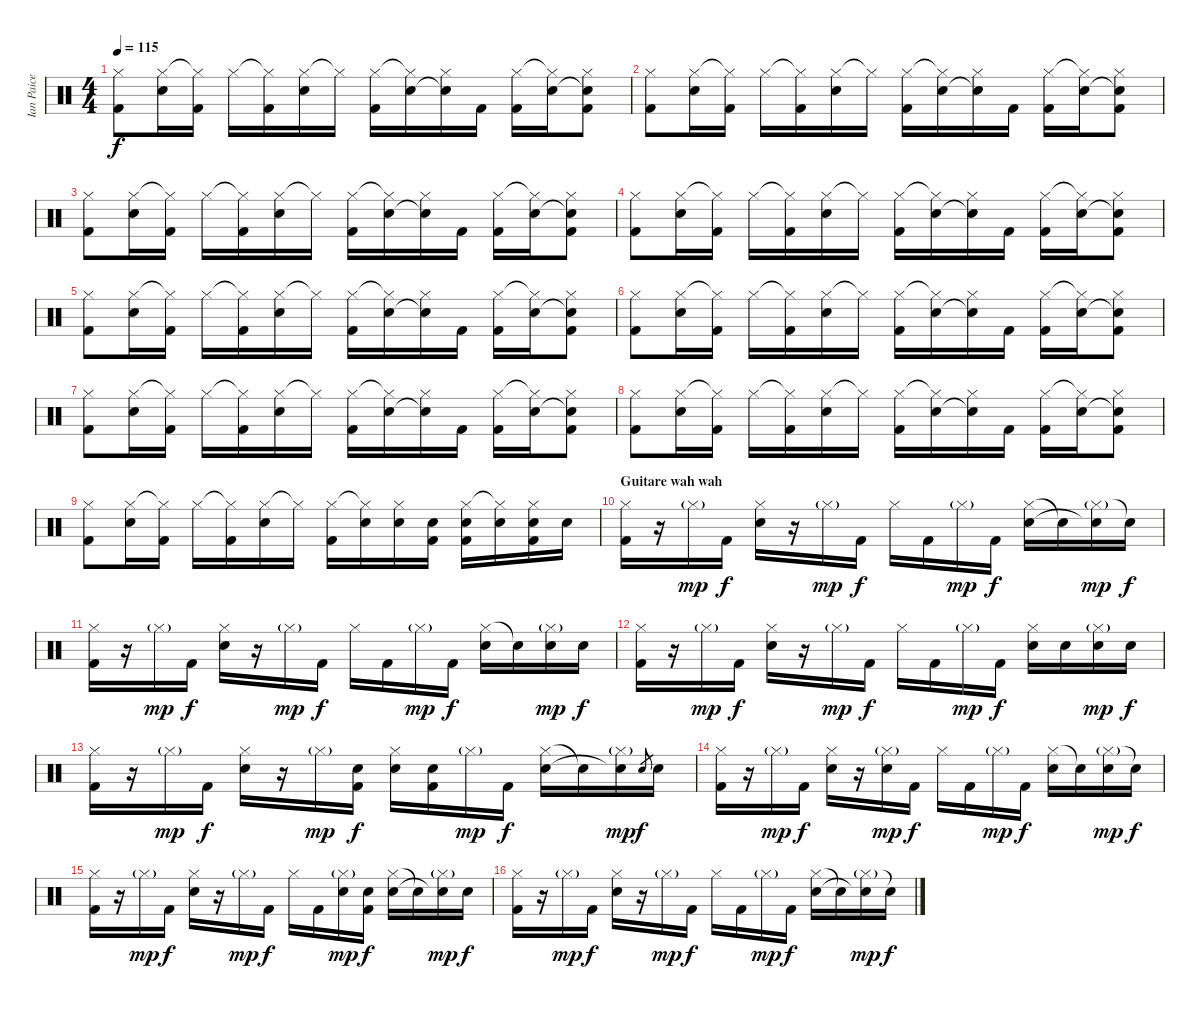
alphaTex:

\track ("Ian Paice" "Ian Paice") {instrument percussion}
\staff {score}
\articulation defaults
\ts (4 4)
\tempo 115
\clef neutral
\ks c
("Hi-Hat (closed)" "Kick (hit) 2").8{dy f} ("Hi-Hat (closed)" "Snare (hit) 2").16 ("Hi-Hat (closed)"{t} "Kick (hit) 2").16 "Hi-Hat (closed)".16 ("Hi-Hat (closed)"{t} "Kick (hit) 2").16 ("Hi-Hat (closed)" "Snare (hit) 2").16 "Hi-Hat (closed)"{t}.16 ("Hi-Hat (closed)" "Kick (hit) 2").16 ("Hi-Hat (closed)"{t} "Snare (hit) 2").16 ("Hi-Hat (closed)" "Snare (hit) 2"{t}).16 "Kick (hit) 2".16 ("Hi-Hat (closed)" "Kick (hit) 2").16 ("Hi-Hat (closed)"{t} "Snare (hit) 2").16 ("Hi-Hat (closed)" "Snare (hit) 2"{t} "Kick (hit) 2").8 |
("Hi-Hat (closed)" "Kick (hit) 2").8 ("Hi-Hat (closed)" "Snare (hit) 2").16 ("Hi-Hat (closed)"{t} "Kick (hit) 2").16 "Hi-Hat (closed)".16 ("Hi-Hat (closed)"{t} "Kick (hit) 2").16 ("Hi-Hat (closed)" "Snare (hit) 2").16 "Hi-Hat (closed)"{t}.16 ("Hi-Hat (closed)" "Kick (hit) 2").16 ("Hi-Hat (closed)"{t} "Snare (hit) 2").16 ("Hi-Hat (closed)" "Snare (hit) 2"{t}).16 "Kick (hit) 2".16 ("Hi-Hat (closed)" "Kick (hit) 2").16 ("Hi-Hat (closed)"{t} "Snare (hit) 2").16 ("Hi-Hat (closed)" "Snare (hit) 2"{t} "Kick (hit) 2").8 |
("Hi-Hat (closed)" "Kick (hit) 2").8 ("Hi-Hat (closed)" "Snare (hit) 2").16 ("Hi-Hat (closed)"{t} "Kick (hit) 2").16 "Hi-Hat (closed)".16 ("Hi-Hat (closed)"{t} "Kick (hit) 2").16 ("Hi-Hat (closed)" "Snare (hit) 2").16 "Hi-Hat (closed)"{t}.16 ("Hi-Hat (closed)" "Kick (hit) 2").16 ("Hi-Hat (closed)"{t} "Snare (hit) 2").16 ("Hi-Hat (closed)" "Snare (hit) 2"{t}).16 "Kick (hit) 2".16 ("Hi-Hat (closed)" "Kick (hit) 2").16 ("Hi-Hat (closed)"{t} "Snare (hit) 2").16 ("Hi-Hat (closed)" "Snare (hit) 2"{t} "Kick (hit) 2").8 |
("Hi-Hat (closed)" "Kick (hit) 2").8 ("Hi-Hat (closed)" "Snare (hit) 2").16 ("Hi-Hat (closed)"{t} "Kick (hit) 2").16 "Hi-Hat (closed)".16 ("Hi-Hat (closed)"{t} "Kick (hit) 2").16 ("Hi-Hat (closed)" "Snare (hit) 2").16 "Hi-Hat (closed)"{t}.16 ("Hi-Hat (closed)" "Kick (hit) 2").16 ("Hi-Hat (closed)"{t} "Snare (hit) 2").16 ("Hi-Hat (closed)" "Snare (hit) 2"{t}).16 "Kick (hit) 2".16 ("Hi-Hat (closed)" "Kick (hit) 2").16 ("Hi-Hat (closed)"{t} "Snare (hit) 2").16 ("Hi-Hat (closed)" "Snare (hit) 2"{t} "Kick (hit) 2").8 |
("Hi-Hat (closed)" "Kick (hit) 2").8 ("Hi-Hat (closed)" "Snare (hit) 2").16 ("Hi-Hat (closed)"{t} "Kick (hit) 2").16 "Hi-Hat (closed)".16 ("Hi-Hat (closed)"{t} "Kick (hit) 2").16 ("Hi-Hat (closed)" "Snare (hit) 2").16 "Hi-Hat (closed)"{t}.16 ("Hi-Hat (closed)" "Kick (hit) 2").16 ("Hi-Hat (closed)"{t} "Snare (hit) 2").16 ("Hi-Hat (closed)" "Snare (hit) 2"{t}).16 "Kick (hit) 2".16 ("Hi-Hat (closed)" "Kick (hit) 2").16 ("Hi-Hat (closed)"{t} "Snare (hit) 2").16 ("Hi-Hat (closed)" "Snare (hit) 2"{t} "Kick (hit) 2").8 |
("Hi-Hat (closed)" "Kick (hit) 2").8 ("Hi-Hat (closed)" "Snare (hit) 2").16 ("Hi-Hat (closed)"{t} "Kick (hit) 2").16 "Hi-Hat (closed)".16 ("Hi-Hat (closed)"{t} "Kick (hit) 2").16 ("Hi-Hat (closed)" "Snare (hit) 2").16 "Hi-Hat (closed)"{t}.16 ("Hi-Hat (closed)" "Kick (hit) 2").16 ("Hi-Hat (closed)"{t} "Snare (hit) 2").16 ("Hi-Hat (closed)" "Snare (hit) 2"{t}).16 "Kick (hit) 2".16 ("Hi-Hat (closed)" "Kick (hit) 2").16 ("Hi-Hat (closed)"{t} "Snare (hit) 2").16 ("Hi-Hat (closed)" "Snare (hit) 2"{t} "Kick (hit) 2").8 |
("Hi-Hat (closed)" "Kick (hit) 2").8 ("Hi-Hat (closed)" "Snare (hit) 2").16 ("Hi-Hat (closed)"{t} "Kick (hit) 2").16 "Hi-Hat (closed)".16 ("Hi-Hat (closed)"{t} "Kick (hit) 2").16 ("Hi-Hat (closed)" "Snare (hit) 2").16 "Hi-Hat (closed)"{t}.16 ("Hi-Hat (closed)" "Kick (hit) 2").16 ("Hi-Hat (closed)"{t} "Snare (hit) 2").16 ("Hi-Hat (closed)" "Snare (hit) 2"{t}).16 "Kick (hit) 2".16 ("Hi-Hat (closed)" "Kick (hit) 2").16 ("Hi-Hat (closed)"{t} "Snare (hit) 2").16 ("Hi-Hat (closed)" "Snare (hit) 2"{t} "Kick (hit) 2").8 |
("Hi-Hat (closed)" "Kick (hit) 2").8 ("Hi-Hat (closed)" "Snare (hit) 2").16 ("Hi-Hat (closed)"{t} "Kick (hit) 2").16 "Hi-Hat (closed)".16 ("Hi-Hat (closed)"{t} "Kick (hit) 2").16 ("Hi-Hat (closed)" "Snare (hit) 2").16 "Hi-Hat (closed)"{t}.16 ("Hi-Hat (closed)" "Kick (hit) 2").16 ("Hi-Hat (closed)"{t} "Snare (hit) 2").16 ("Hi-Hat (closed)" "Snare (hit) 2"{t}).16 "Kick (hit) 2".16 ("Hi-Hat (closed)" "Kick (hit) 2").16 ("Hi-Hat (closed)"{t} "Snare (hit) 2").16 ("Hi-Hat (closed)" "Snare (hit) 2"{t} "Kick (hit) 2").8 |
("Hi-Hat (closed)" "Kick (hit) 2").8 ("Hi-Hat (closed)" "Snare (hit) 2").16 ("Hi-Hat (closed)"{t} "Kick (hit) 2").16 "Hi-Hat (closed)".16 ("Hi-Hat (closed)"{t} "Kick (hit) 2").16 ("Hi-Hat (closed)" "Snare (hit) 2").16 "Hi-Hat (closed)"{t}.16 ("Hi-Hat (closed)" "Kick (hit) 2").16 ("Hi-Hat (closed)"{t} "Snare (hit) 2").16 ("Hi-Hat (closed)" "Snare (hit) 2").16 ("Snare (hit) 2" "Kick (hit) 2").16 ("Hi-Hat (closed)" "Snare (hit) 2" "Kick (hit) 2").16 ("Hi-Hat (closed)"{t} "Snare (hit) 2").16 ("Hi-Hat (closed)" "Snare (hit) 2" "Kick (hit) 2").16 "Snare (hit) 2".16 |
\section ("" "Guitare wah wah")
("Hi-Hat (closed)" "Kick (hit) 2").16 r.16 "Hi-Hat (closed)"{g}.16{dy mp} "Kick (hit) 2".16{dy f} ("Hi-Hat (closed)" "Snare (hit) 2").16 r.16 "Hi-Hat (closed)"{g}.16{dy mp} "Kick (hit) 2".16{dy f} "Hi-Hat (closed)".16 "Kick (hit) 2".16 "Hi-Hat (closed)"{g}.16{dy mp} "Kick (hit) 2".16{dy f} ("Hi-Hat (closed)" "Snare (hit) 2").16 "Snare (hit) 2"{t}.16 ("Hi-Hat (closed)"{g} "Snare (hit) 2"{t}).16{dy mp} "Snare (hit) 2"{t}.16{dy f} |
("Hi-Hat (closed)" "Kick (hit) 2").16 r.16 "Hi-Hat (closed)"{g}.16{dy mp} "Kick (hit) 2".16{dy f} ("Hi-Hat (closed)" "Snare (hit) 2").16 r.16 "Hi-Hat (closed)"{g}.16{dy mp} "Kick (hit) 2".16{dy f} "Hi-Hat (closed)".16 "Kick (hit) 2".16 "Hi-Hat (closed)"{g}.16{dy mp} "Kick (hit) 2".16{dy f} ("Hi-Hat (closed)" "Snare (hit) 2").16 "Snare (hit) 2"{t}.16 ("Hi-Hat (closed)"{g} "Snare (hit) 2").16{dy mp} "Snare (hit) 2".16{dy f} |
("Hi-Hat (closed)" "Kick (hit) 2").16 r.16 "Hi-Hat (closed)"{g}.16{dy mp} "Kick (hit) 2".16{dy f} ("Hi-Hat (closed)" "Snare (hit) 2").16 r.16 "Hi-Hat (closed)"{g}.16{dy mp} "Kick (hit) 2".16{dy f} "Hi-Hat (closed)".16 "Kick (hit) 2".16 "Hi-Hat (closed)"{g}.16{dy mp} "Kick (hit) 2".16{dy f} ("Hi-Hat (closed)" "Snare (hit) 2").16 "Snare (hit) 2".16 ("Hi-Hat (closed)"{g} "Snare (hit) 2").16{dy mp} "Snare (hit) 2".16{dy f} |
("Hi-Hat (closed)" "Kick (hit) 2").16 r.16 "Hi-Hat (closed)"{g}.16{dy mp} "Kick (hit) 2".16{dy f} ("Hi-Hat (closed)" "Snare (hit) 2").16 r.16 "Hi-Hat (closed)"{g}.16{dy mp} ("Snare (hit) 2" "Kick (hit) 2").16{dy f} ("Hi-Hat (closed)" "Snare (hit) 2").16 ("Snare (hit) 2" "Kick (hit) 2").16 "Hi-Hat (closed)"{g}.16{dy mp} "Kick (hit) 2".16{dy f} ("Hi-Hat (closed)" "Snare (hit) 2").16 "Snare (hit) 2"{t}.16 ("Hi-Hat (closed)"{g} "Snare (hit) 2"{t}).16{dy mp} "Snare (hit) 2".8{gr dy f} "Snare (hit) 2".16 |
("Hi-Hat (closed)" "Kick (hit) 2").16 r.16 "Hi-Hat (closed)"{g}.16{dy mp} "Kick (hit) 2".16{dy f} ("Hi-Hat (closed)" "Snare (hit) 2").16 r.16 ("Hi-Hat (closed)"{g} "Snare (hit) 2").16{dy mp} "Kick (hit) 2".16{dy f} "Hi-Hat (closed)".16 "Kick (hit) 2".16 "Hi-Hat (closed)"{g}.16{dy mp} "Kick (hit) 2".16{dy f} ("Hi-Hat (closed)" "Snare (hit) 2").16 "Snare (hit) 2"{t}.16 ("Hi-Hat (closed)"{g} "Snare (hit) 2").16{dy mp} "Snare (hit) 2"{t}.16{dy f} |
("Hi-Hat (closed)" "Kick (hit) 2").16 r.16 "Hi-Hat (closed)"{g}.16{dy mp} "Kick (hit) 2".16{dy f} ("Hi-Hat (closed)" "Snare (hit) 2").16 r.16 "Hi-Hat (closed)"{g}.16{dy mp} "Kick (hit) 2".16{dy f} "Hi-Hat (closed)".16 "Kick (hit) 2".16 ("Hi-Hat (closed)"{g} "Snare (hit) 2").16{dy mp} ("Snare (hit) 2" "Kick (hit) 2").16{dy f} ("Hi-Hat (closed)" "Snare (hit) 2").16 "Snare (hit) 2"{t}.16 ("Hi-Hat (closed)"{g} "Snare (hit) 2"{t}).16{dy mp} "Snare (hit) 2".16{dy f} |
("Hi-Hat (closed)" "Kick (hit) 2").16 r.16 "Hi-Hat (closed)"{g}.16{dy mp} "Kick (hit) 2".16{dy f} ("Hi-Hat (closed)" "Snare (hit) 2").16 r.16 "Hi-Hat (closed)"{g}.16{dy mp} "Kick (hit) 2".16{dy f} "Hi-Hat (closed)".16 "Kick (hit) 2".16 "Hi-Hat (closed)"{g}.16{dy mp} "Kick (hit) 2".16{dy f} ("Hi-Hat (closed)" "Snare (hit) 2").16 "Snare (hit) 2"{t}.16 ("Hi-Hat (closed)"{g} "Snare (hit) 2"{t}).16{dy mp} "Snare (hit) 2"{t}.16{dy f}
